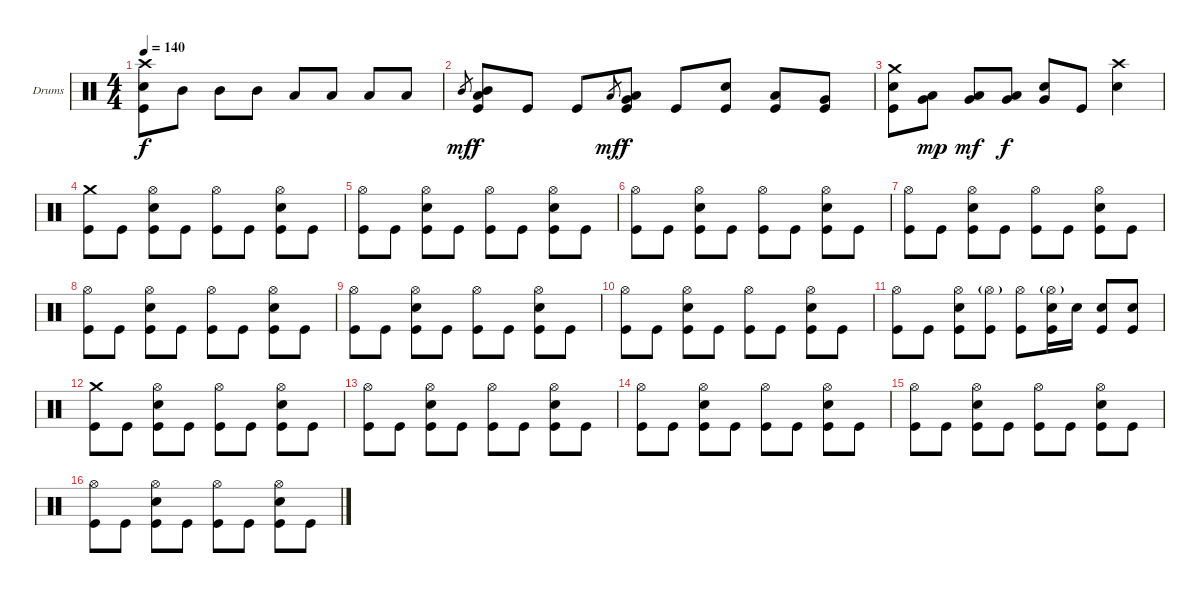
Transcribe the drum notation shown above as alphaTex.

\bracketExtendMode groupsimilarinstruments
\firstSystemTrackNameOrientation horizontal
\otherSystemsTrackNameOrientation horizontal
\track ("Дмитрий Кривенков" "Drums") {instrument percussion}
\staff {score}
\articulation defaults
\ts (4 4)
\tempo 140
\clef neutral
\ks c
("Crash high (hit)" "Snare (hit) 2" "Kick (hit)").8{dy f} "Mid Tom (hit)".8 "Mid Tom (hit)".8 "Mid Tom (hit)".8 "Low Tom (hit)".8 "Low Tom (hit)".8 "Low Tom (hit)".8 "Low Tom (hit)".8 |
"Mid Tom (hit)".8{gr dy mf} ("Mid Tom (hit)" "Low Tom (hit)" "Kick (hit)").8{dy f} "Kick (hit)".8 "Kick (hit)".8 "Low Tom (hit)".8{gr dy mf} ("Low Tom (hit)" "Very Low Tom (hit)" "Kick (hit)").8{dy f} "Kick (hit)".8 ("Snare (hit) 2" "Kick (hit)").8 ("Low Tom (hit)" "Kick (hit)").8 ("Very Low Tom (hit)" "Kick (hit)").8 |
("Crash medium (hit)" "Snare (hit) 2" "Kick (hit)").8 ("Low Tom (hit)" "Very Low Tom (hit)").8{dy mp} ("Low Tom (hit)" "Very Low Tom (hit)").8{dy mf} ("Low Tom (hit)" "Very Low Tom (hit)").8{dy f} ("Snare (hit) 2" "Very Low Tom (hit)").8 "Kick (hit)".8 ("Crash high (hit)" "Snare (hit) 2").4 |
("Crash medium (hit)" "Kick (hit)").8 "Kick (hit)".8 ("Hi-Hat (open)" "Snare (hit) 2" "Kick (hit)").8 "Kick (hit)".8 ("Hi-Hat (open)" "Kick (hit)").8 "Kick (hit)".8 ("Hi-Hat (open)" "Snare (hit) 2" "Kick (hit)").8 "Kick (hit)".8 |
("Hi-Hat (open)" "Kick (hit)").8 "Kick (hit)".8 ("Hi-Hat (open)" "Snare (hit) 2" "Kick (hit)").8 "Kick (hit)".8 ("Hi-Hat (open)" "Kick (hit)").8 "Kick (hit)".8 ("Hi-Hat (open)" "Snare (hit) 2" "Kick (hit)").8 "Kick (hit)".8 |
("Hi-Hat (open)" "Kick (hit)").8 "Kick (hit)".8 ("Hi-Hat (open)" "Snare (hit) 2" "Kick (hit)").8 "Kick (hit)".8 ("Hi-Hat (open)" "Kick (hit)").8 "Kick (hit)".8 ("Hi-Hat (open)" "Snare (hit) 2" "Kick (hit)").8 "Kick (hit)".8 |
("Hi-Hat (open)" "Kick (hit)").8 "Kick (hit)".8 ("Hi-Hat (open)" "Snare (hit) 2" "Kick (hit)").8 "Kick (hit)".8 ("Hi-Hat (open)" "Kick (hit)").8 "Kick (hit)".8 ("Hi-Hat (open)" "Snare (hit) 2" "Kick (hit)").8 "Kick (hit)".8 |
("Hi-Hat (open)" "Kick (hit)").8 "Kick (hit)".8 ("Hi-Hat (open)" "Snare (hit) 2" "Kick (hit)").8 "Kick (hit)".8 ("Hi-Hat (open)" "Kick (hit)").8 "Kick (hit)".8 ("Hi-Hat (open)" "Snare (hit) 2" "Kick (hit)").8 "Kick (hit)".8 |
("Hi-Hat (open)" "Kick (hit)").8 "Kick (hit)".8 ("Hi-Hat (open)" "Snare (hit) 2" "Kick (hit)").8 "Kick (hit)".8 ("Hi-Hat (open)" "Kick (hit)").8 "Kick (hit)".8 ("Hi-Hat (open)" "Snare (hit) 2" "Kick (hit)").8 "Kick (hit)".8 |
("Hi-Hat (open)" "Kick (hit)").8 "Kick (hit)".8 ("Hi-Hat (open)" "Snare (hit) 2" "Kick (hit)").8 "Kick (hit)".8 ("Hi-Hat (open)" "Kick (hit)").8 "Kick (hit)".8 ("Hi-Hat (open)" "Snare (hit) 2" "Kick (hit)").8 "Kick (hit)".8 |
("Hi-Hat (open)" "Kick (hit)").8 "Kick (hit)".8 ("Hi-Hat (open)" "Snare (hit) 2" "Kick (hit)").8 ("Hi-Hat (open)"{g} "Kick (hit)").8 ("Hi-Hat (open)" "Kick (hit)").8 ("Hi-Hat (open)"{g} "Snare (hit) 2" "Kick (hit)").16 "Snare (hit) 2".16 ("Snare (hit) 2" "Kick (hit)").8 ("Snare (hit) 2" "Kick (hit)").8 |
("Crash medium (hit)" "Kick (hit)").8 "Kick (hit)".8 ("Hi-Hat (open)" "Snare (hit) 2" "Kick (hit)").8 "Kick (hit)".8 ("Hi-Hat (open)" "Kick (hit)").8 "Kick (hit)".8 ("Hi-Hat (open)" "Snare (hit) 2" "Kick (hit)").8 "Kick (hit)".8 |
("Hi-Hat (open)" "Kick (hit)").8 "Kick (hit)".8 ("Hi-Hat (open)" "Snare (hit) 2" "Kick (hit)").8 "Kick (hit)".8 ("Hi-Hat (open)" "Kick (hit)").8 "Kick (hit)".8 ("Hi-Hat (open)" "Snare (hit) 2" "Kick (hit)").8 "Kick (hit)".8 |
("Hi-Hat (open)" "Kick (hit)").8 "Kick (hit)".8 ("Hi-Hat (open)" "Snare (hit) 2" "Kick (hit)").8 "Kick (hit)".8 ("Hi-Hat (open)" "Kick (hit)").8 "Kick (hit)".8 ("Hi-Hat (open)" "Snare (hit) 2" "Kick (hit)").8 "Kick (hit)".8 |
("Hi-Hat (open)" "Kick (hit)").8 "Kick (hit)".8 ("Hi-Hat (open)" "Snare (hit) 2" "Kick (hit)").8 "Kick (hit)".8 ("Hi-Hat (open)" "Kick (hit)").8 "Kick (hit)".8 ("Hi-Hat (open)" "Snare (hit) 2" "Kick (hit)").8 "Kick (hit)".8 |
("Hi-Hat (open)" "Kick (hit)").8 "Kick (hit)".8 ("Hi-Hat (open)" "Snare (hit) 2" "Kick (hit)").8 "Kick (hit)".8 ("Hi-Hat (open)" "Kick (hit)").8 "Kick (hit)".8 ("Hi-Hat (open)" "Snare (hit) 2" "Kick (hit)").8 "Kick (hit)".8
